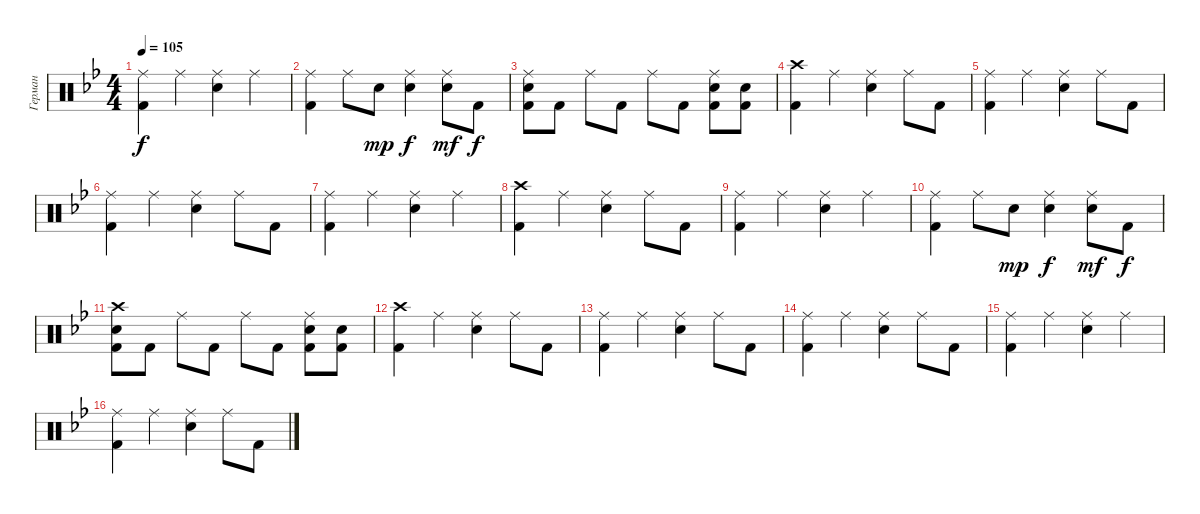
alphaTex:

\track ("Герман" "Герман") {instrument percussion}
\staff {score}
\articulation defaults
\ts (4 4)
\tempo 105
\clef neutral
\ks gminor
("Ride (middle)" "Kick (hit) 2").4{dy f} "Ride (middle)".4 ("Ride (middle)" "Electric Snare (hit)").4 "Ride (middle)".4 |
("Ride (middle)" "Kick (hit) 2").4 "Ride (middle)".8 "Electric Snare (hit)".8{dy mp} ("Ride (middle)" "Electric Snare (hit)").4{dy f} ("Ride (middle)" "Electric Snare (hit)").8{dy mf} "Kick (hit) 2".8{dy f} |
("Ride (middle)" "Electric Snare (hit)" "Kick (hit) 2").8 "Kick (hit) 2".8 "Ride (middle)".8 "Kick (hit) 2".8 "Ride (middle)".8 "Kick (hit) 2".8 ("Ride (middle)" "Electric Snare (hit)" "Kick (hit) 2").8 ("Electric Snare (hit)" "Kick (hit) 2").8 |
("Crash high (hit)" "Kick (hit) 2").4 "Ride (middle)".4 ("Ride (middle)" "Electric Snare (hit)").4 "Ride (middle)".8 "Kick (hit) 2".8 |
("Ride (middle)" "Kick (hit) 2").4 "Ride (middle)".4 ("Ride (middle)" "Electric Snare (hit)").4 "Ride (middle)".8 "Kick (hit) 2".8 |
("Ride (middle)" "Kick (hit) 2").4 "Ride (middle)".4 ("Ride (middle)" "Electric Snare (hit)").4 "Ride (middle)".8 "Kick (hit) 2".8 |
("Ride (middle)" "Kick (hit) 2").4 "Ride (middle)".4 ("Ride (middle)" "Electric Snare (hit)").4 "Ride (middle)".4 |
("Crash high (hit)" "Kick (hit) 2").4 "Ride (middle)".4 ("Ride (middle)" "Electric Snare (hit)").4 "Ride (middle)".8 "Kick (hit) 2".8 |
("Ride (middle)" "Kick (hit) 2").4 "Ride (middle)".4 ("Ride (middle)" "Electric Snare (hit)").4 "Ride (middle)".4 |
("Ride (middle)" "Kick (hit) 2").4 "Ride (middle)".8 "Electric Snare (hit)".8{dy mp} ("Ride (middle)" "Electric Snare (hit)").4{dy f} ("Ride (middle)" "Electric Snare (hit)").8{dy mf} "Kick (hit) 2".8{dy f} |
("Crash high (hit)" "Electric Snare (hit)" "Kick (hit) 2").8 "Kick (hit) 2".8 "Ride (middle)".8 "Kick (hit) 2".8 "Ride (middle)".8 "Kick (hit) 2".8 ("Ride (middle)" "Electric Snare (hit)" "Kick (hit) 2").8 ("Electric Snare (hit)" "Kick (hit) 2").8 |
("Crash high (hit)" "Kick (hit) 2").4 "Ride (middle)".4 ("Ride (middle)" "Electric Snare (hit)").4 "Ride (middle)".8 "Kick (hit) 2".8 |
("Ride (middle)" "Kick (hit) 2").4 "Ride (middle)".4 ("Ride (middle)" "Electric Snare (hit)").4 "Ride (middle)".8 "Kick (hit) 2".8 |
("Ride (middle)" "Kick (hit) 2").4 "Ride (middle)".4 ("Ride (middle)" "Electric Snare (hit)").4 "Ride (middle)".8 "Kick (hit) 2".8 |
("Ride (middle)" "Kick (hit) 2").4 "Ride (middle)".4 ("Ride (middle)" "Electric Snare (hit)").4 "Ride (middle)".4 |
("Ride (middle)" "Kick (hit) 2").4 "Ride (middle)".4 ("Ride (middle)" "Electric Snare (hit)").4 "Ride (middle)".8 "Kick (hit) 2".8
